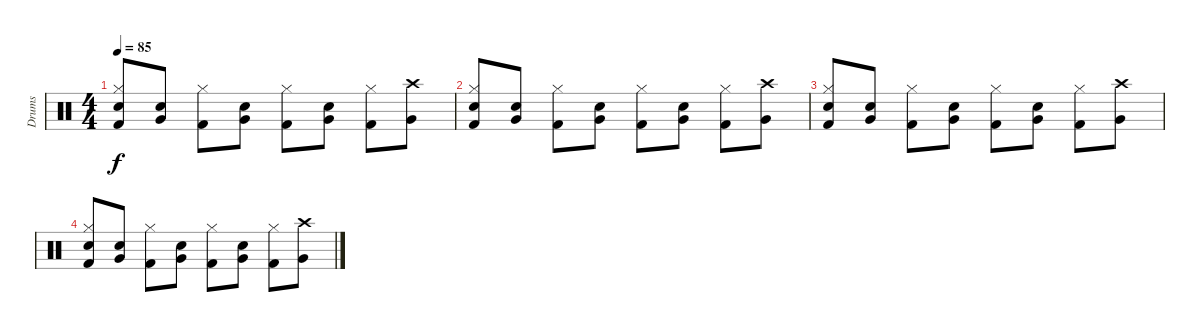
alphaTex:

\track ("Drums" "Drums") {instrument percussion}
\staff {score}
\articulation defaults
\ts (4 4)
\tempo 85
\clef neutral
\ks c
("Kick (hit) 2" "Hi-Hat (closed)" "Snare (hit) 2").8{dy f} ("Very Low Tom (hit)" "Snare (hit) 2").8 ("Kick (hit) 2" "Hi-Hat (closed)").8 ("Very Low Tom (hit)" "Snare (hit) 2").8 ("Kick (hit) 2" "Hi-Hat (closed)").8 ("Very Low Tom (hit)" "Snare (hit) 2").8 ("Kick (hit) 2" "Hi-Hat (closed)").8 ("Very Low Tom (hit)" "Crash high (hit)").8 |
("Kick (hit) 2" "Hi-Hat (closed)" "Snare (hit) 2").8 ("Very Low Tom (hit)" "Snare (hit) 2").8 ("Kick (hit) 2" "Hi-Hat (closed)").8 ("Very Low Tom (hit)" "Snare (hit) 2").8 ("Kick (hit) 2" "Hi-Hat (closed)").8 ("Very Low Tom (hit)" "Snare (hit) 2").8 ("Kick (hit) 2" "Hi-Hat (closed)").8 ("Very Low Tom (hit)" "Crash high (hit)").8 |
("Kick (hit) 2" "Hi-Hat (closed)" "Snare (hit) 2").8 ("Very Low Tom (hit)" "Snare (hit) 2").8 ("Kick (hit) 2" "Hi-Hat (closed)").8 ("Very Low Tom (hit)" "Snare (hit) 2").8 ("Kick (hit) 2" "Hi-Hat (closed)").8 ("Very Low Tom (hit)" "Snare (hit) 2").8 ("Kick (hit) 2" "Hi-Hat (closed)").8 ("Very Low Tom (hit)" "Crash high (hit)").8 |
("Kick (hit) 2" "Hi-Hat (closed)" "Snare (hit) 2").8 ("Very Low Tom (hit)" "Snare (hit) 2").8 ("Kick (hit) 2" "Hi-Hat (closed)").8 ("Very Low Tom (hit)" "Snare (hit) 2").8 ("Kick (hit) 2" "Hi-Hat (closed)").8 ("Very Low Tom (hit)" "Snare (hit) 2").8 ("Kick (hit) 2" "Hi-Hat (closed)").8 ("Very Low Tom (hit)" "Crash high (hit)").8
